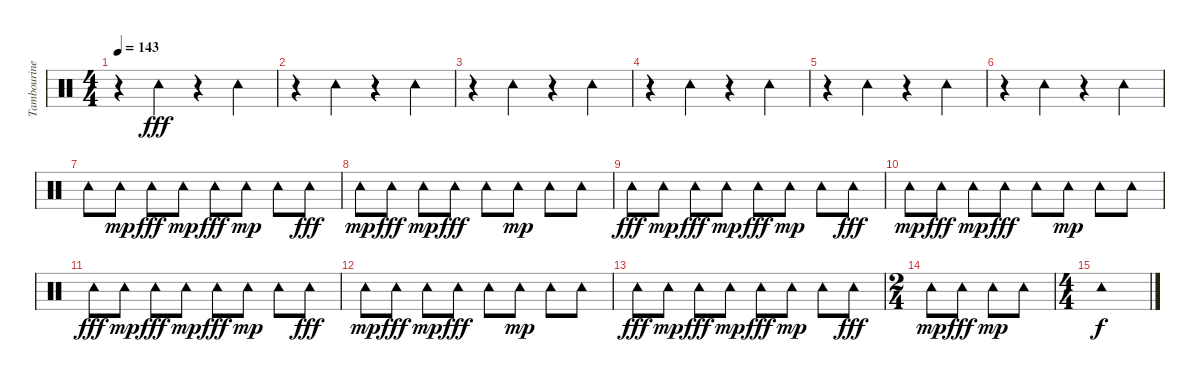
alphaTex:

\track ("Tambourine" "Tambourine") {instrument percussion}
\staff {score}
\articulation defaults
\ts (4 4)
\tempo 143
\clef neutral
\ks c
r.4{dy fff} "Tambourine (hit)".4 r.4 "Tambourine (hit)".4 |
r.4 "Tambourine (hit)".4 r.4 "Tambourine (hit)".4 |
r.4 "Tambourine (hit)".4 r.4 "Tambourine (hit)".4 |
r.4 "Tambourine (hit)".4 r.4 "Tambourine (hit)".4 |
r.4 "Tambourine (hit)".4 r.4 "Tambourine (hit)".4 |
r.4 "Tambourine (hit)".4 r.4 "Tambourine (hit)".4 |
"Tambourine (hit)".8 "Tambourine (hit)".8{dy mp} "Tambourine (hit)".8{dy fff} "Tambourine (hit)".8{dy mp} "Tambourine (hit)".8{dy fff} "Tambourine (hit)".8{dy mp} "Tambourine (hit)".8 "Tambourine (hit)".8{dy fff} |
"Tambourine (hit)".8{dy mp} "Tambourine (hit)".8{dy fff} "Tambourine (hit)".8{dy mp} "Tambourine (hit)".8{dy fff} "Tambourine (hit)".8 "Tambourine (hit)".8{dy mp} "Tambourine (hit)".8 "Tambourine (hit)".8 |
"Tambourine (hit)".8{dy fff} "Tambourine (hit)".8{dy mp} "Tambourine (hit)".8{dy fff} "Tambourine (hit)".8{dy mp} "Tambourine (hit)".8{dy fff} "Tambourine (hit)".8{dy mp} "Tambourine (hit)".8 "Tambourine (hit)".8{dy fff} |
"Tambourine (hit)".8{dy mp} "Tambourine (hit)".8{dy fff} "Tambourine (hit)".8{dy mp} "Tambourine (hit)".8{dy fff} "Tambourine (hit)".8 "Tambourine (hit)".8{dy mp} "Tambourine (hit)".8 "Tambourine (hit)".8 |
"Tambourine (hit)".8{dy fff} "Tambourine (hit)".8{dy mp} "Tambourine (hit)".8{dy fff} "Tambourine (hit)".8{dy mp} "Tambourine (hit)".8{dy fff} "Tambourine (hit)".8{dy mp} "Tambourine (hit)".8 "Tambourine (hit)".8{dy fff} |
"Tambourine (hit)".8{dy mp} "Tambourine (hit)".8{dy fff} "Tambourine (hit)".8{dy mp} "Tambourine (hit)".8{dy fff} "Tambourine (hit)".8 "Tambourine (hit)".8{dy mp} "Tambourine (hit)".8 "Tambourine (hit)".8 |
"Tambourine (hit)".8{dy fff} "Tambourine (hit)".8{dy mp} "Tambourine (hit)".8{dy fff} "Tambourine (hit)".8{dy mp} "Tambourine (hit)".8{dy fff} "Tambourine (hit)".8{dy mp} "Tambourine (hit)".8 "Tambourine (hit)".8{dy fff} |
\ts (2 4)
"Tambourine (hit)".8{dy mp} "Tambourine (hit)".8{dy fff} "Tambourine (hit)".8{dy mp} "Tambourine (hit)".8 |
\ts (4 4)
"Tambourine (hit)".1{dy f}
